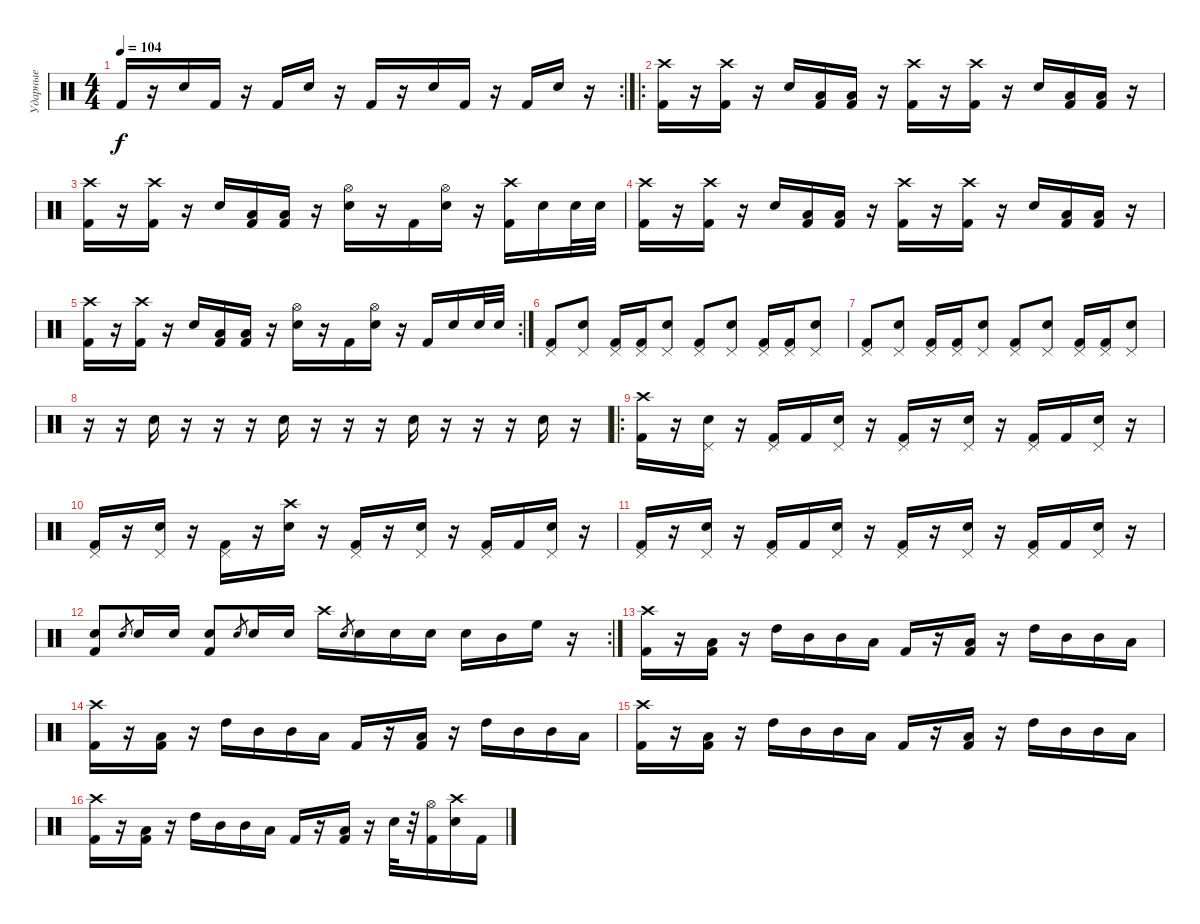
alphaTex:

\track ("Ударные" "Ударные") {instrument percussion}
\staff
\articulation defaults
\rc 2
\ts (4 4)
\tempo 104
\clef neutral
\ks c "Kick (hit) 2".16{dy f}
r.16 "Electric Snare (hit)".16 "Kick (hit) 2".16 r.16 "Kick (hit) 2".16 "Electric Snare (hit)".16 r.16 "Kick (hit) 2".16 r.16 "Electric Snare (hit)".16 "Kick (hit) 2".16 r.16 "Kick (hit) 2".16 "Electric Snare (hit)".16 r.16 |
\ro
("Crash high (hit)" "Kick (hit) 2").16 r.16 ("Crash high (hit)" "Kick (hit) 2").16 r.16 "Electric Snare (hit)".16 ("Low Tom (hit)" "Kick (hit) 2").16 ("Low Tom (hit)" "Kick (hit) 2").16 r.16 ("Crash high (hit)" "Kick (hit) 2").16 r.16 ("Crash high (hit)" "Kick (hit) 2").16 r.16 "Electric Snare (hit)".16 ("Low Tom (hit)" "Kick (hit) 2").16 ("Low Tom (hit)" "Kick (hit) 2").16 r.16 |
("Crash high (hit)" "Kick (hit) 2").16 r.16 ("Crash high (hit)" "Kick (hit) 2").16 r.16 "Electric Snare (hit)".16 ("Low Tom (hit)" "Kick (hit) 2").16 ("Low Tom (hit)" "Kick (hit) 2").16 r.16 ("Hi-Hat (open)" "Electric Snare (hit)").16 r.16 "Kick (hit) 2".16 ("Hi-Hat (open)" "Electric Snare (hit)").16 r.16 ("Crash high (hit)" "Kick (hit) 2").16 "Electric Snare (hit)".16 "Electric Snare (hit)".32 "Electric Snare (hit)".32 |
("Crash high (hit)" "Kick (hit) 2").16 r.16 ("Crash high (hit)" "Kick (hit) 2").16 r.16 "Electric Snare (hit)".16 ("Low Tom (hit)" "Kick (hit) 2").16 ("Low Tom (hit)" "Kick (hit) 2").16 r.16 ("Crash high (hit)" "Kick (hit) 2").16 r.16 ("Crash high (hit)" "Kick (hit) 2").16 r.16 "Electric Snare (hit)".16 ("Low Tom (hit)" "Kick (hit) 2").16 ("Low Tom (hit)" "Kick (hit) 2").16 r.16 |
\rc 2
("Crash high (hit)" "Kick (hit) 2").16 r.16 ("Crash high (hit)" "Kick (hit) 2").16 r.16 "Electric Snare (hit)".16 ("Low Tom (hit)" "Kick (hit) 2").16 ("Low Tom (hit)" "Kick (hit) 2").16 r.16 ("Hi-Hat (open)" "Electric Snare (hit)").16 r.16 "Kick (hit) 2".16 ("Hi-Hat (open)" "Electric Snare (hit)").16 r.16 "Kick (hit) 2".16 "Electric Snare (hit)".16 "Electric Snare (hit)".32 "Electric Snare (hit)".32 |
("Pedal Hi-Hat (hit)" "Kick (hit) 2").8 ("Pedal Hi-Hat (hit)" "Electric Snare (hit)").8 ("Pedal Hi-Hat (hit)" "Kick (hit) 2").16 ("Pedal Hi-Hat (hit)" "Kick (hit) 2").16 ("Pedal Hi-Hat (hit)" "Electric Snare (hit)").8 ("Pedal Hi-Hat (hit)" "Kick (hit) 2").8 ("Pedal Hi-Hat (hit)" "Electric Snare (hit)").8 ("Pedal Hi-Hat (hit)" "Kick (hit) 2").16 ("Pedal Hi-Hat (hit)" "Kick (hit) 2").16 ("Pedal Hi-Hat (hit)" "Electric Snare (hit)").8 |
("Pedal Hi-Hat (hit)" "Kick (hit) 2").8 ("Pedal Hi-Hat (hit)" "Electric Snare (hit)").8 ("Pedal Hi-Hat (hit)" "Kick (hit) 2").16 ("Pedal Hi-Hat (hit)" "Kick (hit) 2").16 ("Pedal Hi-Hat (hit)" "Electric Snare (hit)").8 ("Pedal Hi-Hat (hit)" "Kick (hit) 2").8 ("Pedal Hi-Hat (hit)" "Electric Snare (hit)").8 ("Pedal Hi-Hat (hit)" "Kick (hit) 2").16 ("Pedal Hi-Hat (hit)" "Kick (hit) 2").16 ("Pedal Hi-Hat (hit)" "Electric Snare (hit)").8 |
r.16 r.16 "Electric Snare (hit)".16 r.16 r.16 r.16 "Electric Snare (hit)".16 r.16 r.16 r.16 "Electric Snare (hit)".16 r.16 r.16 r.16 "Electric Snare (hit)".16 r.16 |
\ro
("Crash high (hit)" "Kick (hit) 2").16 r.16 ("Pedal Hi-Hat (hit)" "Electric Snare (hit)").16 r.16 ("Pedal Hi-Hat (hit)" "Kick (hit) 2").16 "Kick (hit) 2".16 ("Pedal Hi-Hat (hit)" "Electric Snare (hit)").16 r.16 ("Pedal Hi-Hat (hit)" "Kick (hit) 2").16 r.16 ("Pedal Hi-Hat (hit)" "Electric Snare (hit)").16 r.16 ("Pedal Hi-Hat (hit)" "Kick (hit) 2").16 "Kick (hit) 2".16 ("Pedal Hi-Hat (hit)" "Electric Snare (hit)").16 r.16 |
("Pedal Hi-Hat (hit)" "Kick (hit) 2").16 r.16 ("Pedal Hi-Hat (hit)" "Electric Snare (hit)").16 r.16 ("Pedal Hi-Hat (hit)" "Kick (hit) 2").16 r.16 ("Crash high (hit)" "Electric Snare (hit)").16 r.16 ("Pedal Hi-Hat (hit)" "Kick (hit) 2").16 r.16 ("Pedal Hi-Hat (hit)" "Electric Snare (hit)").16 r.16 ("Pedal Hi-Hat (hit)" "Kick (hit) 2").16 "Kick (hit) 2".16 ("Pedal Hi-Hat (hit)" "Electric Snare (hit)").16 r.16 |
("Pedal Hi-Hat (hit)" "Kick (hit) 2").16 r.16 ("Pedal Hi-Hat (hit)" "Electric Snare (hit)").16 r.16 ("Pedal Hi-Hat (hit)" "Kick (hit) 2").16 "Kick (hit) 2".16 ("Pedal Hi-Hat (hit)" "Electric Snare (hit)").16 r.16 ("Pedal Hi-Hat (hit)" "Kick (hit) 2").16 r.16 ("Pedal Hi-Hat (hit)" "Electric Snare (hit)").16 r.16 ("Pedal Hi-Hat (hit)" "Kick (hit) 2").16 "Kick (hit) 2".16 ("Pedal Hi-Hat (hit)" "Electric Snare (hit)").16 r.16 |
\rc 2
("Electric Snare (hit)" "Kick (hit) 2").8 "Electric Snare (hit)".8{gr} "Electric Snare (hit)".16 "Electric Snare (hit)".16 ("Electric Snare (hit)" "Kick (hit) 2").8 "Electric Snare (hit)".8{gr} "Electric Snare (hit)".16 "Electric Snare (hit)".16 "Crash high (hit)".16 "Electric Snare (hit)".8{gr} "Electric Snare (hit)".16 "Electric Snare (hit)".16 "Electric Snare (hit)".16 "Electric Snare (hit)".16 "Mid Tom (hit)".16 "High Floor Tom (hit)".16 r.16 |
("Crash high (hit)" "Kick (hit) 2").16 r.16 ("Low Tom (hit)" "Kick (hit) 2").16 r.16 "High Tom (hit)".16 "Mid Tom (hit)".16 "Mid Tom (hit)".16 "Low Tom (hit)".16 "Kick (hit) 2".16 r.16 ("Low Tom (hit)" "Kick (hit) 2").16 r.16 "High Tom (hit)".16 "Mid Tom (hit)".16 "Mid Tom (hit)".16 "Low Tom (hit)".16 |
("Crash high (hit)" "Kick (hit) 2").16 r.16 ("Low Tom (hit)" "Kick (hit) 2").16 r.16 "High Tom (hit)".16 "Mid Tom (hit)".16 "Mid Tom (hit)".16 "Low Tom (hit)".16 "Kick (hit) 2".16 r.16 ("Low Tom (hit)" "Kick (hit) 2").16 r.16 "High Tom (hit)".16 "Mid Tom (hit)".16 "Mid Tom (hit)".16 "Low Tom (hit)".16 |
("Crash high (hit)" "Kick (hit) 2").16 r.16 ("Low Tom (hit)" "Kick (hit) 2").16 r.16 "High Tom (hit)".16 "Mid Tom (hit)".16 "Mid Tom (hit)".16 "Low Tom (hit)".16 "Kick (hit) 2".16 r.16 ("Low Tom (hit)" "Kick (hit) 2").16 r.16 "High Tom (hit)".16 "Mid Tom (hit)".16 "Mid Tom (hit)".16 "Low Tom (hit)".16 |
("Crash high (hit)" "Kick (hit) 2").16 r.16 ("Low Tom (hit)" "Kick (hit) 2").16 r.16 "High Tom (hit)".16 "Mid Tom (hit)".16 "Mid Tom (hit)".16 "Low Tom (hit)".16 "Kick (hit) 2".16 r.16 ("Low Tom (hit)" "Kick (hit) 2").16 r.16 "Electric Snare (hit)".32 r.32 ("Hi-Hat (open)" "Kick (hit) 2").16 ("Crash high (hit)" "Electric Snare (hit)").16 "Kick (hit) 2".16
